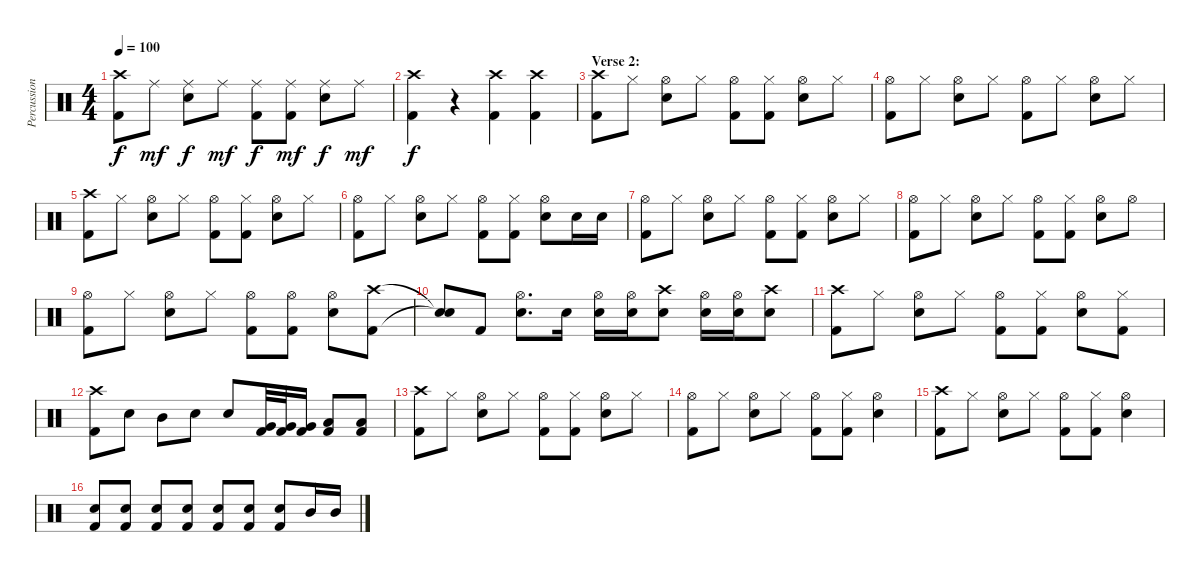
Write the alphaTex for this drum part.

\track ("Percussion" "Percussion") {instrument percussion}
\staff {score}
\articulation defaults
\ts (4 4)
\tempo 100
\clef neutral
\ks c
("Crash high (hit)" "Kick (hit) 2").8{dy f} "Ride (middle)".8{dy mf} ("Ride (middle)" "Electric Snare (hit)").8{dy f} "Ride (middle)".8{dy mf} ("Ride (middle)" "Kick (hit) 2").8{dy f} ("Ride (middle)" "Kick (hit) 2").8{dy mf} ("Ride (middle)" "Electric Snare (hit)").8{dy f} "Ride (middle)".8{dy mf} |
("Crash high (hit)" "Kick (hit) 2").4{dy f} r.4 ("Crash high (hit)" "Kick (hit) 2").4 ("Crash high (hit)" "Kick (hit) 2").4 |
\section ("" "Verse 2:")
("Crash high (hit)" "Kick (hit) 2").8 "Hi-Hat (closed)".8 ("Hi-Hat (open)" "Electric Snare (hit)").8 "Hi-Hat (closed)".8 ("Hi-Hat (open)" "Kick (hit) 2").8 ("Hi-Hat (closed)" "Kick (hit) 2").8 ("Hi-Hat (open)" "Electric Snare (hit)").8 "Hi-Hat (closed)".8 |
("Hi-Hat (open)" "Kick (hit) 2").8 "Hi-Hat (closed)".8 ("Hi-Hat (open)" "Electric Snare (hit)").8 "Hi-Hat (closed)".8 ("Hi-Hat (open)" "Kick (hit) 2").8 "Hi-Hat (closed)".8 ("Hi-Hat (open)" "Electric Snare (hit)").8 "Hi-Hat (closed)".8 |
("Crash high (hit)" "Kick (hit) 2").8 "Hi-Hat (closed)".8 ("Hi-Hat (open)" "Electric Snare (hit)").8 "Hi-Hat (closed)".8 ("Hi-Hat (open)" "Kick (hit) 2").8 ("Hi-Hat (closed)" "Kick (hit) 2").8 ("Hi-Hat (open)" "Electric Snare (hit)").8 "Hi-Hat (closed)".8 |
("Hi-Hat (open)" "Kick (hit) 2").8 "Hi-Hat (closed)".8 ("Hi-Hat (open)" "Electric Snare (hit)").8 "Hi-Hat (closed)".8 ("Hi-Hat (open)" "Kick (hit) 2").8 ("Hi-Hat (closed)" "Kick (hit) 2").8 ("Hi-Hat (open)" "Electric Snare (hit)").8 "Electric Snare (hit)".16 "Electric Snare (hit)".16 |
("Hi-Hat (open)" "Kick (hit) 2").8 "Hi-Hat (closed)".8 ("Hi-Hat (open)" "Electric Snare (hit)").8 "Hi-Hat (closed)".8 ("Hi-Hat (open)" "Kick (hit) 2").8 ("Hi-Hat (closed)" "Kick (hit) 2").8 ("Hi-Hat (open)" "Electric Snare (hit)").8 "Hi-Hat (closed)".8 |
("Hi-Hat (open)" "Kick (hit) 2").8 "Hi-Hat (closed)".8 ("Hi-Hat (open)" "Electric Snare (hit)").8 "Hi-Hat (closed)".8 ("Hi-Hat (open)" "Kick (hit) 2").8 ("Hi-Hat (closed)" "Kick (hit) 2").8 ("Hi-Hat (open)" "Electric Snare (hit)").8 "Hi-Hat (open)".8 |
("Hi-Hat (open)" "Kick (hit) 2").8 "Hi-Hat (closed)".8 ("Hi-Hat (open)" "Electric Snare (hit)").8 "Hi-Hat (closed)".8 ("Hi-Hat (open)" "Kick (hit) 2").8 ("Hi-Hat (open)" "Kick (hit) 2").8 ("Hi-Hat (open)" "Electric Snare (hit)").8 ("Crash high (hit)" "Kick (hit) 2").8 |
("Snare (hit)"{t} "Snare (hit)"{t}).8 "Kick (hit) 2".8 ("Hi-Hat (open)" "Electric Snare (hit)").8{d} "Electric Snare (hit)".16 ("Hi-Hat (open)" "Electric Snare (hit)").16 ("Hi-Hat (open)" "Electric Snare (hit)").16 ("Crash high (hit)" "Electric Snare (hit)").8 ("Hi-Hat (open)" "Electric Snare (hit)").16 ("Hi-Hat (open)" "Electric Snare (hit)").16 ("Crash high (hit)" "Electric Snare (hit)").8 |
("Crash high (hit)" "Kick (hit) 2").8 "Hi-Hat (closed)".8 ("Hi-Hat (open)" "Electric Snare (hit)").8 "Hi-Hat (closed)".8 ("Hi-Hat (open)" "Kick (hit) 2").8 ("Hi-Hat (closed)" "Kick (hit) 2").8 ("Hi-Hat (open)" "Electric Snare (hit)").8 ("Hi-Hat (closed)" "Kick (hit) 2").8 |
("Crash high (hit)" "Kick (hit) 2").8 "Electric Snare (hit)".8 "Mid Tom (hit)".8 "Electric Snare (hit)".8 "Electric Snare (hit)".8 ("Very Low Tom (hit)" "Kick (hit) 2").32 ("Very Low Tom (hit)" "Kick (hit) 2").32 ("Very Low Tom (hit)" "Kick (hit) 2").16 ("Low Floor Tom (hit)" "Kick (hit) 2").8 ("Low Floor Tom (hit)" "Kick (hit) 2").8 |
("Crash high (hit)" "Kick (hit) 2").8 "Hi-Hat (closed)".8 ("Hi-Hat (open)" "Electric Snare (hit)").8 "Hi-Hat (closed)".8 ("Hi-Hat (open)" "Kick (hit) 2").8 ("Hi-Hat (closed)" "Kick (hit) 2").8 ("Hi-Hat (open)" "Electric Snare (hit)").8 "Hi-Hat (closed)".8 |
("Hi-Hat (open)" "Kick (hit) 2").8 "Hi-Hat (closed)".8 ("Hi-Hat (open)" "Electric Snare (hit)").8 "Hi-Hat (closed)".8 ("Hi-Hat (open)" "Kick (hit) 2").8 ("Hi-Hat (closed)" "Kick (hit) 2").8 ("Hi-Hat (open)" "Electric Snare (hit)").4 |
("Crash high (hit)" "Kick (hit) 2").8 "Hi-Hat (closed)".8 ("Hi-Hat (open)" "Electric Snare (hit)").8 "Hi-Hat (closed)".8 ("Hi-Hat (open)" "Kick (hit) 2").8 ("Hi-Hat (closed)" "Kick (hit) 2").8 ("Hi-Hat (open)" "Electric Snare (hit)").4 |
("Electric Snare (hit)" "Kick (hit) 2").8 ("Electric Snare (hit)" "Kick (hit) 2").8 ("Electric Snare (hit)" "Kick (hit) 2").8 ("Electric Snare (hit)" "Kick (hit) 2").8 ("Electric Snare (hit)" "Kick (hit) 2").8 ("Electric Snare (hit)" "Kick (hit) 2").8 ("Electric Snare (hit)" "Kick (hit) 2").8 "Mid Tom (hit)".16 "Mid Tom (hit)".16
